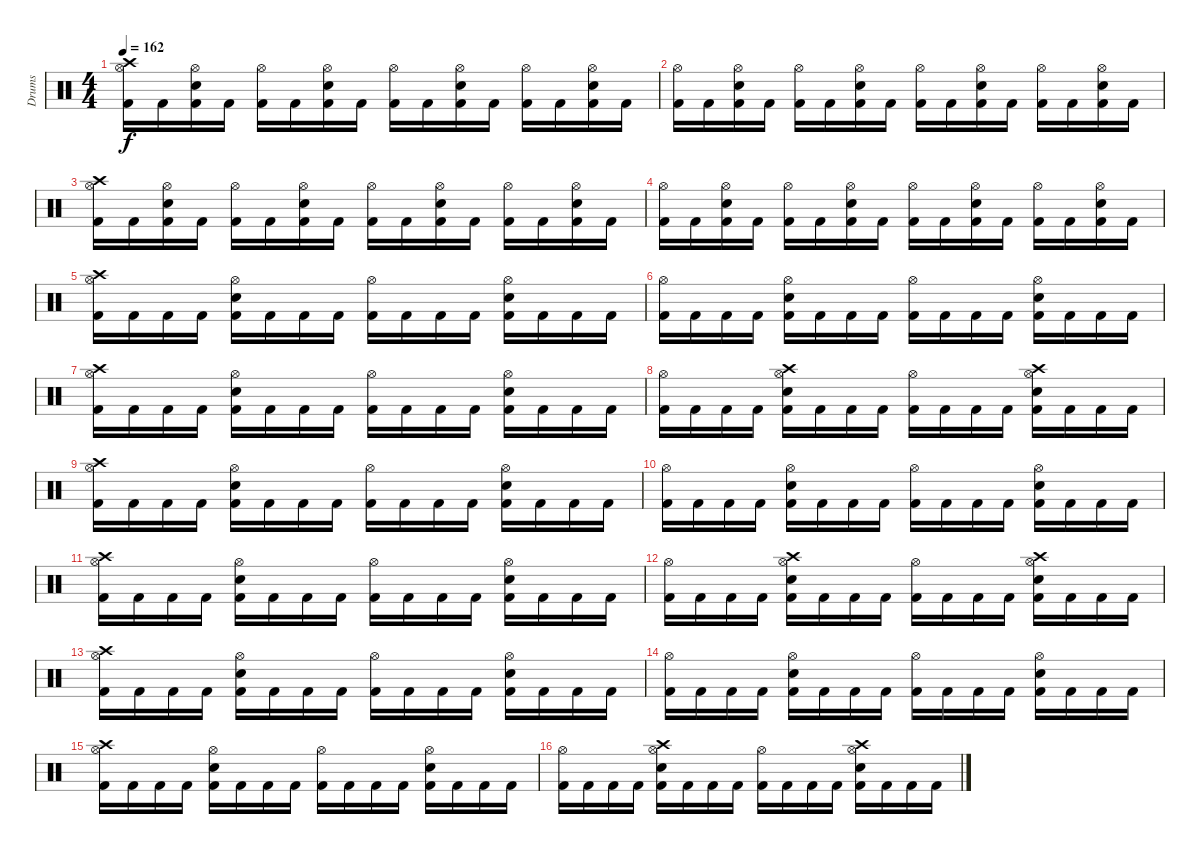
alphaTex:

\track ("Drums" "Drums") {instrument percussion}
\staff {score}
\articulation defaults
\ts (4 4)
\tempo 162
\clef neutral
\ks c
("Crash high (hit)" "Hi-Hat (open)" "Kick (hit) 2").16{dy f} "Kick (hit) 2".16 ("Electric Snare (hit)" "Hi-Hat (open)" "Kick (hit) 2").16 "Kick (hit) 2".16 ("Hi-Hat (open)" "Kick (hit) 2").16 "Kick (hit) 2".16 ("Electric Snare (hit)" "Hi-Hat (open)" "Kick (hit) 2").16 "Kick (hit) 2".16 ("Hi-Hat (open)" "Kick (hit) 2").16 "Kick (hit) 2".16 ("Electric Snare (hit)" "Hi-Hat (open)" "Kick (hit) 2").16 "Kick (hit) 2".16 ("Hi-Hat (open)" "Kick (hit) 2").16 "Kick (hit) 2".16 ("Electric Snare (hit)" "Hi-Hat (open)" "Kick (hit) 2").16 "Kick (hit) 2".16 |
("Hi-Hat (open)" "Kick (hit) 2").16 "Kick (hit) 2".16 ("Electric Snare (hit)" "Hi-Hat (open)" "Kick (hit) 2").16 "Kick (hit) 2".16 ("Hi-Hat (open)" "Kick (hit) 2").16 "Kick (hit) 2".16 ("Electric Snare (hit)" "Hi-Hat (open)" "Kick (hit) 2").16 "Kick (hit) 2".16 ("Hi-Hat (open)" "Kick (hit) 2").16 "Kick (hit) 2".16 ("Electric Snare (hit)" "Hi-Hat (open)" "Kick (hit) 2").16 "Kick (hit) 2".16 ("Hi-Hat (open)" "Kick (hit) 2").16 "Kick (hit) 2".16 ("Electric Snare (hit)" "Hi-Hat (open)" "Kick (hit) 2").16 "Kick (hit) 2".16 |
("Crash high (hit)" "Hi-Hat (open)" "Kick (hit) 2").16 "Kick (hit) 2".16 ("Electric Snare (hit)" "Hi-Hat (open)" "Kick (hit) 2").16 "Kick (hit) 2".16 ("Hi-Hat (open)" "Kick (hit) 2").16 "Kick (hit) 2".16 ("Electric Snare (hit)" "Hi-Hat (open)" "Kick (hit) 2").16 "Kick (hit) 2".16 ("Hi-Hat (open)" "Kick (hit) 2").16 "Kick (hit) 2".16 ("Electric Snare (hit)" "Hi-Hat (open)" "Kick (hit) 2").16 "Kick (hit) 2".16 ("Hi-Hat (open)" "Kick (hit) 2").16 "Kick (hit) 2".16 ("Electric Snare (hit)" "Hi-Hat (open)" "Kick (hit) 2").16 "Kick (hit) 2".16 |
("Hi-Hat (open)" "Kick (hit) 2").16 "Kick (hit) 2".16 ("Electric Snare (hit)" "Hi-Hat (open)" "Kick (hit) 2").16 "Kick (hit) 2".16 ("Hi-Hat (open)" "Kick (hit) 2").16 "Kick (hit) 2".16 ("Electric Snare (hit)" "Hi-Hat (open)" "Kick (hit) 2").16 "Kick (hit) 2".16 ("Hi-Hat (open)" "Kick (hit) 2").16 "Kick (hit) 2".16 ("Electric Snare (hit)" "Hi-Hat (open)" "Kick (hit) 2").16 "Kick (hit) 2".16 ("Hi-Hat (open)" "Kick (hit) 2").16 "Kick (hit) 2".16 ("Electric Snare (hit)" "Hi-Hat (open)" "Kick (hit) 2").16 "Kick (hit) 2".16 |
("Hi-Hat (open)" "Kick (hit) 2" "Crash high (hit)").16 "Kick (hit) 2".16 "Kick (hit) 2".16 "Kick (hit) 2".16 ("Hi-Hat (open)" "Electric Snare (hit)" "Kick (hit) 2").16 "Kick (hit) 2".16 "Kick (hit) 2".16 "Kick (hit) 2".16 ("Hi-Hat (open)" "Kick (hit) 2").16 "Kick (hit) 2".16 "Kick (hit) 2".16 "Kick (hit) 2".16 ("Hi-Hat (open)" "Electric Snare (hit)" "Kick (hit) 2").16 "Kick (hit) 2".16 "Kick (hit) 2".16 "Kick (hit) 2".16 |
("Hi-Hat (open)" "Kick (hit) 2").16 "Kick (hit) 2".16 "Kick (hit) 2".16 "Kick (hit) 2".16 ("Hi-Hat (open)" "Electric Snare (hit)" "Kick (hit) 2").16 "Kick (hit) 2".16 "Kick (hit) 2".16 "Kick (hit) 2".16 ("Hi-Hat (open)" "Kick (hit) 2").16 "Kick (hit) 2".16 "Kick (hit) 2".16 "Kick (hit) 2".16 ("Hi-Hat (open)" "Electric Snare (hit)" "Kick (hit) 2").16 "Kick (hit) 2".16 "Kick (hit) 2".16 "Kick (hit) 2".16 |
("Hi-Hat (open)" "Kick (hit) 2" "Crash high (hit)").16 "Kick (hit) 2".16 "Kick (hit) 2".16 "Kick (hit) 2".16 ("Hi-Hat (open)" "Electric Snare (hit)" "Kick (hit) 2").16 "Kick (hit) 2".16 "Kick (hit) 2".16 "Kick (hit) 2".16 ("Hi-Hat (open)" "Kick (hit) 2").16 "Kick (hit) 2".16 "Kick (hit) 2".16 "Kick (hit) 2".16 ("Hi-Hat (open)" "Electric Snare (hit)" "Kick (hit) 2").16 "Kick (hit) 2".16 "Kick (hit) 2".16 "Kick (hit) 2".16 |
("Hi-Hat (open)" "Kick (hit) 2").16 "Kick (hit) 2".16 "Kick (hit) 2".16 "Kick (hit) 2".16 ("Crash high (hit)" "Hi-Hat (open)" "Electric Snare (hit)" "Kick (hit) 2").16 "Kick (hit) 2".16 "Kick (hit) 2".16 "Kick (hit) 2".16 ("Hi-Hat (open)" "Kick (hit) 2").16 "Kick (hit) 2".16 "Kick (hit) 2".16 "Kick (hit) 2".16 ("Crash high (hit)" "Hi-Hat (open)" "Electric Snare (hit)" "Kick (hit) 2").16 "Kick (hit) 2".16 "Kick (hit) 2".16 "Kick (hit) 2".16 |
("Hi-Hat (open)" "Kick (hit) 2" "Crash high (hit)").16 "Kick (hit) 2".16 "Kick (hit) 2".16 "Kick (hit) 2".16 ("Hi-Hat (open)" "Electric Snare (hit)" "Kick (hit) 2").16 "Kick (hit) 2".16 "Kick (hit) 2".16 "Kick (hit) 2".16 ("Hi-Hat (open)" "Kick (hit) 2").16 "Kick (hit) 2".16 "Kick (hit) 2".16 "Kick (hit) 2".16 ("Hi-Hat (open)" "Electric Snare (hit)" "Kick (hit) 2").16 "Kick (hit) 2".16 "Kick (hit) 2".16 "Kick (hit) 2".16 |
("Hi-Hat (open)" "Kick (hit) 2").16 "Kick (hit) 2".16 "Kick (hit) 2".16 "Kick (hit) 2".16 ("Hi-Hat (open)" "Electric Snare (hit)" "Kick (hit) 2").16 "Kick (hit) 2".16 "Kick (hit) 2".16 "Kick (hit) 2".16 ("Hi-Hat (open)" "Kick (hit) 2").16 "Kick (hit) 2".16 "Kick (hit) 2".16 "Kick (hit) 2".16 ("Hi-Hat (open)" "Electric Snare (hit)" "Kick (hit) 2").16 "Kick (hit) 2".16 "Kick (hit) 2".16 "Kick (hit) 2".16 |
("Hi-Hat (open)" "Kick (hit) 2" "Crash high (hit)").16 "Kick (hit) 2".16 "Kick (hit) 2".16 "Kick (hit) 2".16 ("Hi-Hat (open)" "Electric Snare (hit)" "Kick (hit) 2").16 "Kick (hit) 2".16 "Kick (hit) 2".16 "Kick (hit) 2".16 ("Hi-Hat (open)" "Kick (hit) 2").16 "Kick (hit) 2".16 "Kick (hit) 2".16 "Kick (hit) 2".16 ("Hi-Hat (open)" "Electric Snare (hit)" "Kick (hit) 2").16 "Kick (hit) 2".16 "Kick (hit) 2".16 "Kick (hit) 2".16 |
("Hi-Hat (open)" "Kick (hit) 2").16 "Kick (hit) 2".16 "Kick (hit) 2".16 "Kick (hit) 2".16 ("Crash high (hit)" "Hi-Hat (open)" "Electric Snare (hit)" "Kick (hit) 2").16 "Kick (hit) 2".16 "Kick (hit) 2".16 "Kick (hit) 2".16 ("Hi-Hat (open)" "Kick (hit) 2").16 "Kick (hit) 2".16 "Kick (hit) 2".16 "Kick (hit) 2".16 ("Crash high (hit)" "Hi-Hat (open)" "Electric Snare (hit)" "Kick (hit) 2").16 "Kick (hit) 2".16 "Kick (hit) 2".16 "Kick (hit) 2".16 |
("Hi-Hat (open)" "Kick (hit) 2" "Crash high (hit)").16 "Kick (hit) 2".16 "Kick (hit) 2".16 "Kick (hit) 2".16 ("Hi-Hat (open)" "Electric Snare (hit)" "Kick (hit) 2").16 "Kick (hit) 2".16 "Kick (hit) 2".16 "Kick (hit) 2".16 ("Hi-Hat (open)" "Kick (hit) 2").16 "Kick (hit) 2".16 "Kick (hit) 2".16 "Kick (hit) 2".16 ("Hi-Hat (open)" "Electric Snare (hit)" "Kick (hit) 2").16 "Kick (hit) 2".16 "Kick (hit) 2".16 "Kick (hit) 2".16 |
("Hi-Hat (open)" "Kick (hit) 2").16 "Kick (hit) 2".16 "Kick (hit) 2".16 "Kick (hit) 2".16 ("Hi-Hat (open)" "Electric Snare (hit)" "Kick (hit) 2").16 "Kick (hit) 2".16 "Kick (hit) 2".16 "Kick (hit) 2".16 ("Hi-Hat (open)" "Kick (hit) 2").16 "Kick (hit) 2".16 "Kick (hit) 2".16 "Kick (hit) 2".16 ("Hi-Hat (open)" "Electric Snare (hit)" "Kick (hit) 2").16 "Kick (hit) 2".16 "Kick (hit) 2".16 "Kick (hit) 2".16 |
("Hi-Hat (open)" "Kick (hit) 2" "Crash high (hit)").16 "Kick (hit) 2".16 "Kick (hit) 2".16 "Kick (hit) 2".16 ("Hi-Hat (open)" "Electric Snare (hit)" "Kick (hit) 2").16 "Kick (hit) 2".16 "Kick (hit) 2".16 "Kick (hit) 2".16 ("Hi-Hat (open)" "Kick (hit) 2").16 "Kick (hit) 2".16 "Kick (hit) 2".16 "Kick (hit) 2".16 ("Hi-Hat (open)" "Electric Snare (hit)" "Kick (hit) 2").16 "Kick (hit) 2".16 "Kick (hit) 2".16 "Kick (hit) 2".16 |
("Hi-Hat (open)" "Kick (hit) 2").16 "Kick (hit) 2".16 "Kick (hit) 2".16 "Kick (hit) 2".16 ("Crash high (hit)" "Hi-Hat (open)" "Electric Snare (hit)" "Kick (hit) 2").16 "Kick (hit) 2".16 "Kick (hit) 2".16 "Kick (hit) 2".16 ("Hi-Hat (open)" "Kick (hit) 2").16 "Kick (hit) 2".16 "Kick (hit) 2".16 "Kick (hit) 2".16 ("Crash high (hit)" "Hi-Hat (open)" "Electric Snare (hit)" "Kick (hit) 2").16 "Kick (hit) 2".16 "Kick (hit) 2".16 "Kick (hit) 2".16
